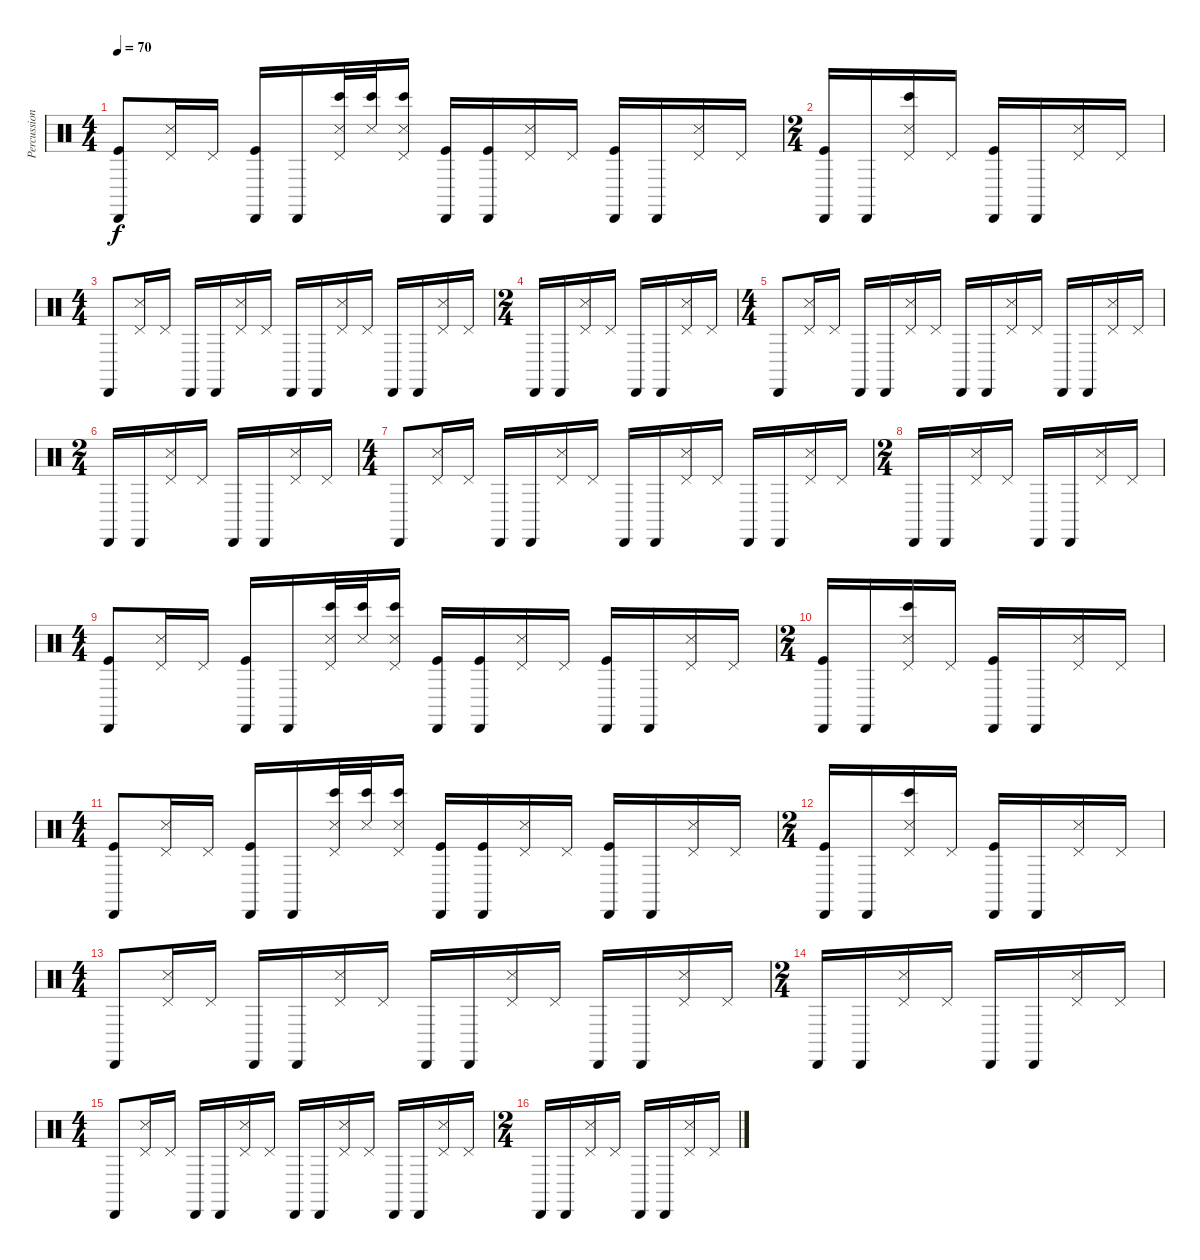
\track ("Percussions" "Percussion") {instrument percussion}
\staff {score}
\articulation defaults
\ts (4 4)
\tempo 70
\clef neutral
\ks c
("Cabasa (hit)" "Kick (hit)").8{dy f} ("Pedal Hi-Hat (hit)" "Snare (side stick) 3").16 "Pedal Hi-Hat (hit)".16 ("Cabasa (hit)" "Kick (hit)").16 "Cabasa (hit)".16 ("Pedal Hi-Hat (hit)" "Snare (side stick) 3" "Bongo High (hit)").32 ("Snare (side stick) 3" "Bongo High (hit)").32 ("Pedal Hi-Hat (hit)" "Snare (side stick) 3" "Bongo High (hit)").16 ("Cabasa (hit)" "Kick (hit)").16 ("Cabasa (hit)" "Kick (hit)").16 ("Pedal Hi-Hat (hit)" "Snare (side stick) 3").16 "Pedal Hi-Hat (hit)".16 ("Cabasa (hit)" "Kick (hit)").16 "Cabasa (hit)".16 ("Pedal Hi-Hat (hit)" "Snare (side stick) 3").16 "Pedal Hi-Hat (hit)".16 |
\ts (2 4)
("Cabasa (hit)" "Kick (hit)").16 "Cabasa (hit)".16 ("Pedal Hi-Hat (hit)" "Snare (side stick) 3" "Bongo High (hit)").16 "Pedal Hi-Hat (hit)".16 ("Cabasa (hit)" "Kick (hit)").16 "Cabasa (hit)".16 ("Pedal Hi-Hat (hit)" "Snare (side stick) 3").16 "Pedal Hi-Hat (hit)".16 |
\ts (4 4)
"Cabasa (hit)".8 ("Pedal Hi-Hat (hit)" "Snare (side stick) 3").16 "Pedal Hi-Hat (hit)".16 "Cabasa (hit)".16 "Cabasa (hit)".16 ("Pedal Hi-Hat (hit)" "Snare (side stick) 3").16 "Pedal Hi-Hat (hit)".16 "Cabasa (hit)".16 "Cabasa (hit)".16 ("Pedal Hi-Hat (hit)" "Snare (side stick) 3").16 "Pedal Hi-Hat (hit)".16 "Cabasa (hit)".16 "Cabasa (hit)".16 ("Pedal Hi-Hat (hit)" "Snare (side stick) 3").16 "Pedal Hi-Hat (hit)".16 |
\ts (2 4)
"Cabasa (hit)".16 "Cabasa (hit)".16 ("Pedal Hi-Hat (hit)" "Snare (side stick) 3").16 "Pedal Hi-Hat (hit)".16 "Cabasa (hit)".16 "Cabasa (hit)".16 ("Pedal Hi-Hat (hit)" "Snare (side stick) 3").16 "Pedal Hi-Hat (hit)".16 |
\ts (4 4)
"Cabasa (hit)".8 ("Pedal Hi-Hat (hit)" "Snare (side stick) 3").16 "Pedal Hi-Hat (hit)".16 "Cabasa (hit)".16 "Cabasa (hit)".16 ("Pedal Hi-Hat (hit)" "Snare (side stick) 3").16 "Pedal Hi-Hat (hit)".16 "Cabasa (hit)".16 "Cabasa (hit)".16 ("Pedal Hi-Hat (hit)" "Snare (side stick) 3").16 "Pedal Hi-Hat (hit)".16 "Cabasa (hit)".16 "Cabasa (hit)".16 ("Pedal Hi-Hat (hit)" "Snare (side stick) 3").16 "Pedal Hi-Hat (hit)".16 |
\ts (2 4)
"Cabasa (hit)".16 "Cabasa (hit)".16 ("Pedal Hi-Hat (hit)" "Snare (side stick) 3").16 "Pedal Hi-Hat (hit)".16 "Cabasa (hit)".16 "Cabasa (hit)".16 ("Pedal Hi-Hat (hit)" "Snare (side stick) 3").16 "Pedal Hi-Hat (hit)".16 |
\ts (4 4)
"Cabasa (hit)".8 ("Pedal Hi-Hat (hit)" "Snare (side stick) 3").16 "Pedal Hi-Hat (hit)".16 "Cabasa (hit)".16 "Cabasa (hit)".16 ("Pedal Hi-Hat (hit)" "Snare (side stick) 3").16 "Pedal Hi-Hat (hit)".16 "Cabasa (hit)".16 "Cabasa (hit)".16 ("Pedal Hi-Hat (hit)" "Snare (side stick) 3").16 "Pedal Hi-Hat (hit)".16 "Cabasa (hit)".16 "Cabasa (hit)".16 ("Pedal Hi-Hat (hit)" "Snare (side stick) 3").16 "Pedal Hi-Hat (hit)".16 |
\ts (2 4)
"Cabasa (hit)".16 "Cabasa (hit)".16 ("Pedal Hi-Hat (hit)" "Snare (side stick) 3").16 "Pedal Hi-Hat (hit)".16 "Cabasa (hit)".16 "Cabasa (hit)".16 ("Pedal Hi-Hat (hit)" "Snare (side stick) 3").16 "Pedal Hi-Hat (hit)".16 |
\ts (4 4)
("Cabasa (hit)" "Kick (hit)").8 ("Pedal Hi-Hat (hit)" "Snare (side stick) 3").16 "Pedal Hi-Hat (hit)".16 ("Cabasa (hit)" "Kick (hit)").16 "Cabasa (hit)".16 ("Pedal Hi-Hat (hit)" "Snare (side stick) 3" "Bongo High (hit)").32 ("Snare (side stick) 3" "Bongo High (hit)").32 ("Pedal Hi-Hat (hit)" "Snare (side stick) 3" "Bongo High (hit)").16 ("Cabasa (hit)" "Kick (hit)").16 ("Cabasa (hit)" "Kick (hit)").16 ("Pedal Hi-Hat (hit)" "Snare (side stick) 3").16 "Pedal Hi-Hat (hit)".16 ("Cabasa (hit)" "Kick (hit)").16 "Cabasa (hit)".16 ("Pedal Hi-Hat (hit)" "Snare (side stick) 3").16 "Pedal Hi-Hat (hit)".16 |
\ts (2 4)
("Cabasa (hit)" "Kick (hit)").16 "Cabasa (hit)".16 ("Pedal Hi-Hat (hit)" "Snare (side stick) 3" "Bongo High (hit)").16 "Pedal Hi-Hat (hit)".16 ("Cabasa (hit)" "Kick (hit)").16 "Cabasa (hit)".16 ("Pedal Hi-Hat (hit)" "Snare (side stick) 3").16 "Pedal Hi-Hat (hit)".16 |
\ts (4 4)
("Cabasa (hit)" "Kick (hit)").8 ("Pedal Hi-Hat (hit)" "Snare (side stick) 3").16 "Pedal Hi-Hat (hit)".16 ("Cabasa (hit)" "Kick (hit)").16 "Cabasa (hit)".16 ("Pedal Hi-Hat (hit)" "Snare (side stick) 3" "Bongo High (hit)").32 ("Snare (side stick) 3" "Bongo High (hit)").32 ("Pedal Hi-Hat (hit)" "Snare (side stick) 3" "Bongo High (hit)").16 ("Cabasa (hit)" "Kick (hit)").16 ("Cabasa (hit)" "Kick (hit)").16 ("Pedal Hi-Hat (hit)" "Snare (side stick) 3").16 "Pedal Hi-Hat (hit)".16 ("Cabasa (hit)" "Kick (hit)").16 "Cabasa (hit)".16 ("Pedal Hi-Hat (hit)" "Snare (side stick) 3").16 "Pedal Hi-Hat (hit)".16 |
\ts (2 4)
("Cabasa (hit)" "Kick (hit)").16 "Cabasa (hit)".16 ("Pedal Hi-Hat (hit)" "Snare (side stick) 3" "Bongo High (hit)").16 "Pedal Hi-Hat (hit)".16 ("Cabasa (hit)" "Kick (hit)").16 "Cabasa (hit)".16 ("Pedal Hi-Hat (hit)" "Snare (side stick) 3").16 "Pedal Hi-Hat (hit)".16 |
\ts (4 4)
"Cabasa (hit)".8 ("Pedal Hi-Hat (hit)" "Snare (side stick) 3").16 "Pedal Hi-Hat (hit)".16 "Cabasa (hit)".16 "Cabasa (hit)".16 ("Pedal Hi-Hat (hit)" "Snare (side stick) 3").16 "Pedal Hi-Hat (hit)".16 "Cabasa (hit)".16 "Cabasa (hit)".16 ("Pedal Hi-Hat (hit)" "Snare (side stick) 3").16 "Pedal Hi-Hat (hit)".16 "Cabasa (hit)".16 "Cabasa (hit)".16 ("Pedal Hi-Hat (hit)" "Snare (side stick) 3").16 "Pedal Hi-Hat (hit)".16 |
\ts (2 4)
"Cabasa (hit)".16 "Cabasa (hit)".16 ("Pedal Hi-Hat (hit)" "Snare (side stick) 3").16 "Pedal Hi-Hat (hit)".16 "Cabasa (hit)".16 "Cabasa (hit)".16 ("Pedal Hi-Hat (hit)" "Snare (side stick) 3").16 "Pedal Hi-Hat (hit)".16 |
\ts (4 4)
"Cabasa (hit)".8 ("Pedal Hi-Hat (hit)" "Snare (side stick) 3").16 "Pedal Hi-Hat (hit)".16 "Cabasa (hit)".16 "Cabasa (hit)".16 ("Pedal Hi-Hat (hit)" "Snare (side stick) 3").16 "Pedal Hi-Hat (hit)".16 "Cabasa (hit)".16 "Cabasa (hit)".16 ("Pedal Hi-Hat (hit)" "Snare (side stick) 3").16 "Pedal Hi-Hat (hit)".16 "Cabasa (hit)".16 "Cabasa (hit)".16 ("Pedal Hi-Hat (hit)" "Snare (side stick) 3").16 "Pedal Hi-Hat (hit)".16 |
\ts (2 4)
"Cabasa (hit)".16 "Cabasa (hit)".16 ("Pedal Hi-Hat (hit)" "Snare (side stick) 3").16 "Pedal Hi-Hat (hit)".16 "Cabasa (hit)".16 "Cabasa (hit)".16 ("Pedal Hi-Hat (hit)" "Snare (side stick) 3").16 "Pedal Hi-Hat (hit)".16
